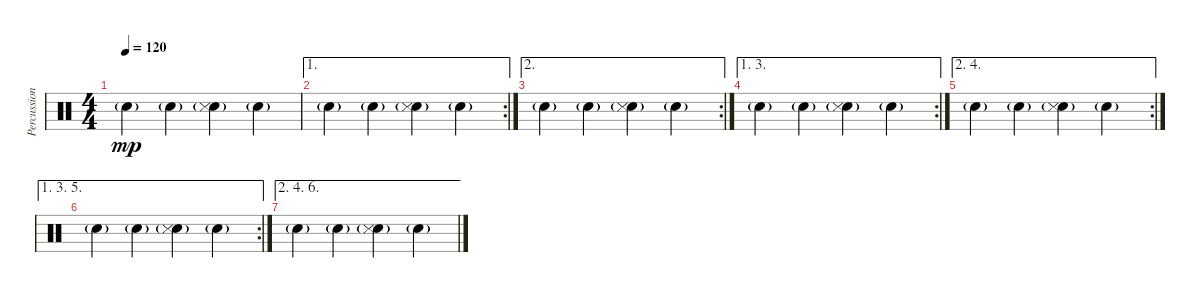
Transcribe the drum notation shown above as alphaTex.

\track ("Percussion" "Percussion") {instrument percussion}
\staff {score}
\articulation defaults
\ts (4 4)
\tempo 120
\clef neutral
\ks c "Snare (hit) 2"{g}.4{dy mp} "Snare (hit) 2"{g}.4
("Snare (hit) 2"{g} "Snare (side stick) 3").4 "Snare (hit) 2"{g}.4 |
\ae 1
\rc 2 "Snare (hit) 2"{g}.4 "Snare (hit) 2"{g}.4
("Snare (hit) 2"{g} "Snare (side stick) 3").4 "Snare (hit) 2"{g}.4 |
\ae 2
\rc 2 "Snare (hit) 2"{g}.4 "Snare (hit) 2"{g}.4
("Snare (hit) 2"{g} "Snare (side stick) 3").4 "Snare (hit) 2"{g}.4 |
\ae (1 3)
\rc 2 "Snare (hit) 2"{g}.4 "Snare (hit) 2"{g}.4
("Snare (hit) 2"{g} "Snare (side stick) 3").4 "Snare (hit) 2"{g}.4 |
\ae (2 4)
\rc 2 "Snare (hit) 2"{g}.4 "Snare (hit) 2"{g}.4
("Snare (hit) 2"{g} "Snare (side stick) 3").4 "Snare (hit) 2"{g}.4 |
\ae (1 3 5)
\rc 2 "Snare (hit) 2"{g}.4 "Snare (hit) 2"{g}.4
("Snare (hit) 2"{g} "Snare (side stick) 3").4 "Snare (hit) 2"{g}.4 |
\ae (2 4 6)
"Snare (hit) 2"{g}.4 "Snare (hit) 2"{g}.4 ("Snare (hit) 2"{g} "Snare (side stick) 3").4 "Snare (hit) 2"{g}.4
